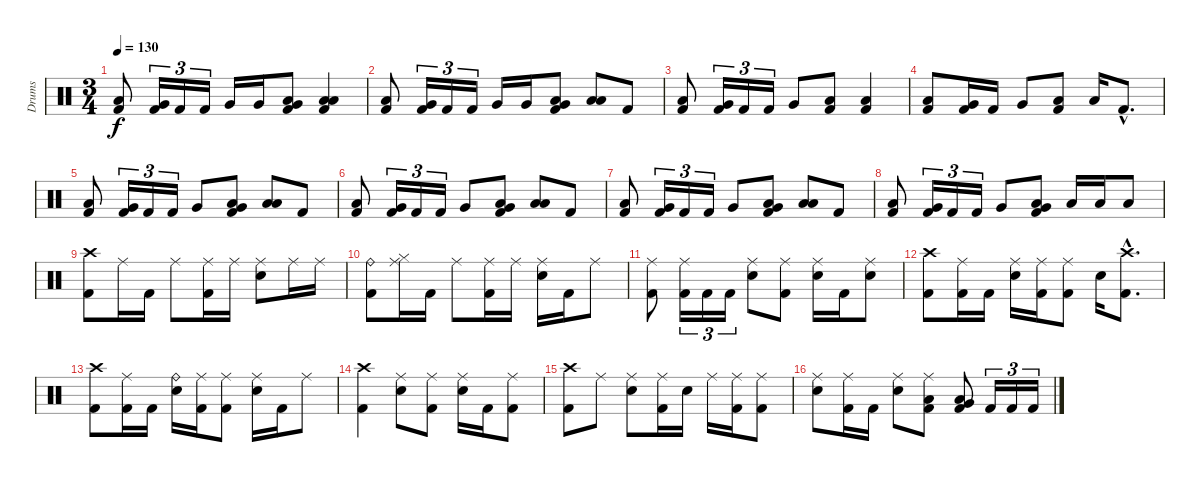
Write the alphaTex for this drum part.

\track ("Drums" "Drums") {instrument percussion}
\staff {score}
\articulation defaults
\ts (3 4)
\tempo 130
\clef neutral
\ks c
("Low Floor Tom (hit)" "Kick (hit) 2").8{dy f} ("Very Low Tom (hit)" "Kick (hit) 2").16{tu (3 2)} "Kick (hit) 2".16{tu (3 2)} "Kick (hit) 2".16{tu (3 2)} "Very Low Tom (hit)".16 "Very Low Tom (hit)".16 ("Low Floor Tom (hit)" "Very Low Tom (hit)" "Kick (hit) 2").8 ("Low Tom (hit)" "Low Floor Tom (hit)" "Kick (hit) 2").4 |
("Low Floor Tom (hit)" "Kick (hit) 2").8 ("Very Low Tom (hit)" "Kick (hit) 2").16{tu (3 2)} "Kick (hit) 2".16{tu (3 2)} "Kick (hit) 2".16{tu (3 2)} "Very Low Tom (hit)".16 "Very Low Tom (hit)".16 ("Low Floor Tom (hit)" "Very Low Tom (hit)" "Kick (hit) 2").8 ("Low Tom (hit)" "Low Floor Tom (hit)").8 "Kick (hit) 2".8 |
("Low Floor Tom (hit)" "Kick (hit) 2").8 ("Very Low Tom (hit)" "Kick (hit) 2").16{tu (3 2)} "Kick (hit) 2".16{tu (3 2)} "Kick (hit) 2".16{tu (3 2)} "Very Low Tom (hit)".8 ("Low Floor Tom (hit)" "Kick (hit) 2").8 ("Low Tom (hit)" "Kick (hit) 2").4 |
("Low Floor Tom (hit)" "Kick (hit) 2").8 ("Very Low Tom (hit)" "Kick (hit) 2").16 "Kick (hit) 2".16 "Very Low Tom (hit)".8 ("Low Floor Tom (hit)" "Kick (hit) 2").8 "Low Tom (hit)".16 "Kick (hit) 2"{hac}.8{d} |
("Low Floor Tom (hit)" "Kick (hit) 2").8 ("Very Low Tom (hit)" "Kick (hit) 2").16{tu (3 2)} "Kick (hit) 2".16{tu (3 2)} "Kick (hit) 2".16{tu (3 2)} "Very Low Tom (hit)".8 ("Low Floor Tom (hit)" "Very Low Tom (hit)" "Kick (hit) 2").8 ("Low Tom (hit)" "Low Floor Tom (hit)").8 "Kick (hit) 2".8 |
("Low Floor Tom (hit)" "Kick (hit) 2").8 ("Very Low Tom (hit)" "Kick (hit) 2").16{tu (3 2)} "Kick (hit) 2".16{tu (3 2)} "Kick (hit) 2".16{tu (3 2)} "Very Low Tom (hit)".8 ("Low Floor Tom (hit)" "Very Low Tom (hit)" "Kick (hit) 2").8 ("Low Tom (hit)" "Low Floor Tom (hit)").8 "Kick (hit) 2".8 |
("Low Floor Tom (hit)" "Kick (hit) 2").8 ("Very Low Tom (hit)" "Kick (hit) 2").16{tu (3 2)} "Kick (hit) 2".16{tu (3 2)} "Kick (hit) 2".16{tu (3 2)} "Very Low Tom (hit)".8 ("Low Floor Tom (hit)" "Very Low Tom (hit)" "Kick (hit) 2").8 ("Low Tom (hit)" "Low Floor Tom (hit)").8 "Kick (hit) 2".8 |
("Low Floor Tom (hit)" "Kick (hit) 2").8 ("Very Low Tom (hit)" "Kick (hit) 2").16{tu (3 2)} "Kick (hit) 2".16{tu (3 2)} "Kick (hit) 2".16{tu (3 2)} "Very Low Tom (hit)".8 ("Low Floor Tom (hit)" "Very Low Tom (hit)" "Kick (hit) 2").8 "Low Tom (hit)".16 "Low Tom (hit)".16 "Low Tom (hit)".8 |
("Crash high (hit)" "Kick (hit) 2").8 "Ride (middle)".16 "Kick (hit) 2".16 "Ride (middle)".8 ("Ride (middle)" "Kick (hit) 2").16 "Ride (middle)".16 ("Ride (middle)" "Snare (hit) 2").8 "Ride (middle)".16 "Ride (middle)".16 |
("Ride (bell)" "Kick (hit) 2").8 ("Ride (middle)" "Hi-Hat (closed)").16 "Kick (hit) 2".16 "Ride (middle)".8 ("Ride (middle)" "Kick (hit) 2").16 "Ride (middle)".16 ("Ride (middle)" "Snare (hit) 2").16 "Kick (hit) 2".16 "Ride (middle)".8 |
("Ride (middle)" "Kick (hit) 2").8 ("Ride (middle)" "Kick (hit) 2").16{tu (3 2)} "Kick (hit) 2".16{tu (3 2)} "Kick (hit) 2".16{tu (3 2)} ("Ride (middle)" "Snare (hit) 2").8 ("Ride (middle)" "Kick (hit) 2").8 ("Ride (middle)" "Snare (hit) 2").16 "Kick (hit) 2".16 ("Ride (middle)" "Snare (hit) 2").8 |
("Crash high (hit)" "Kick (hit) 2").8 ("Ride (middle)" "Kick (hit) 2").16 "Kick (hit) 2".16 ("Ride (middle)" "Snare (hit) 2").16 ("Ride (middle)" "Kick (hit) 2").16 ("Ride (middle)" "Kick (hit) 2").8 "Snare (hit) 2".16 ("Crash high (hit)"{hac} "Kick (hit) 2"{hac}).8{d} |
("Crash high (hit)" "Kick (hit) 2").8 ("Ride (middle)" "Kick (hit) 2").16 "Kick (hit) 2".16 ("Ride (bell)" "Snare (hit) 2").16 ("Ride (middle)" "Kick (hit) 2").16 ("Ride (middle)" "Kick (hit) 2").8 ("Ride (middle)" "Snare (hit) 2").16 "Kick (hit) 2".16 "Ride (middle)".8 |
("Crash high (hit)" "Kick (hit) 2").4 ("Ride (middle)" "Snare (hit) 2").8 ("Ride (middle)" "Kick (hit) 2").8 ("Ride (middle)" "Snare (hit) 2").16 "Kick (hit) 2".16 ("Ride (middle)" "Kick (hit) 2").8 |
("Crash high (hit)" "Kick (hit) 2").8 "Ride (middle)".8 ("Ride (middle)" "Snare (hit) 2").8 ("Ride (middle)" "Kick (hit) 2").16 "Snare (hit) 2".16 "Ride (middle)".16 ("Ride (middle)" "Kick (hit) 2").16 ("Ride (middle)" "Kick (hit) 2").8 |
("Ride (middle)" "Snare (hit) 2").8 ("Ride (middle)" "Kick (hit) 2").16 "Kick (hit) 2".16 ("Ride (middle)" "Snare (hit) 2").8 ("Ride (middle)" "Low Tom (hit)" "Kick (hit) 2").8 ("Low Tom (hit)" "Very Low Tom (hit)" "Kick (hit) 2").8 "Kick (hit) 2".16{tu (3 2)} "Kick (hit) 2".16{tu (3 2)} "Kick (hit) 2".16{tu (3 2)}
